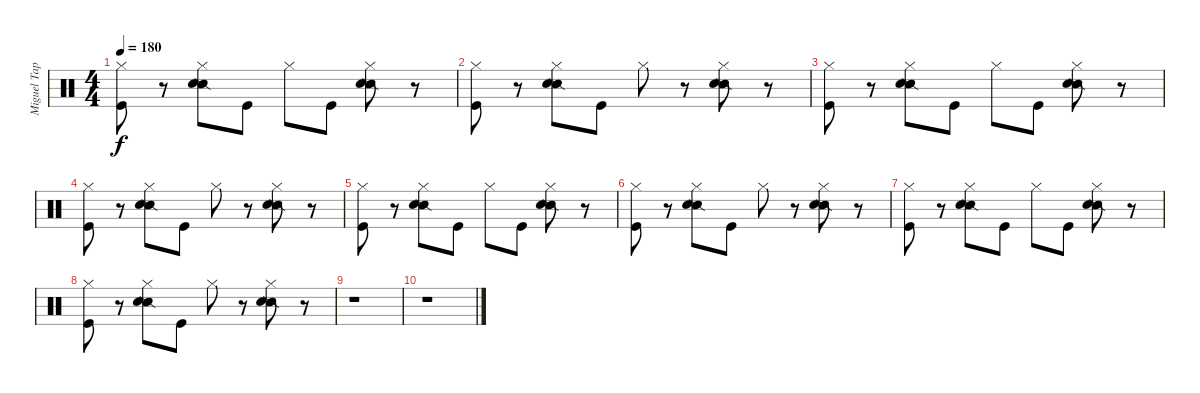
\track ("Miguel Tapia (Batería)" "Miguel Tap") {instrument percussion}
\staff {score}
\articulation defaults
\ts (4 4)
\tempo 180
\clef neutral
\ks c
("Hi-Hat (closed)" "Kick (hit)").8{dy f} r.8 ("Snare (side stick) 2" "Hi-Hat (closed)" "Snare (hit) 2").8 "Kick (hit)".8 "Hi-Hat (closed)".8 "Kick (hit)".8 ("Snare (side stick) 2" "Hi-Hat (closed)" "Snare (hit) 2").8 r.8 |
("Hi-Hat (closed)" "Kick (hit)").8{volume 9} r.8 ("Snare (side stick) 2" "Hi-Hat (closed)" "Snare (hit) 2").8 "Kick (hit)".8 "Hi-Hat (closed)".8 r.8 ("Snare (side stick) 2" "Hi-Hat (closed)" "Snare (hit) 2").8 r.8 |
("Hi-Hat (closed)" "Kick (hit)").8 r.8 ("Snare (side stick) 2" "Hi-Hat (closed)" "Snare (hit) 2").8 "Kick (hit)".8 "Hi-Hat (closed)".8 "Kick (hit)".8 ("Snare (side stick) 2" "Hi-Hat (closed)" "Snare (hit) 2").8 r.8 |
("Hi-Hat (closed)" "Kick (hit)").8 r.8 ("Snare (side stick) 2" "Hi-Hat (closed)" "Snare (hit) 2").8 "Kick (hit)".8 "Hi-Hat (closed)".8 r.8 ("Snare (side stick) 2" "Hi-Hat (closed)" "Snare (hit) 2").8 r.8 |
("Hi-Hat (closed)" "Kick (hit)").8{volume 0} r.8 ("Snare (side stick) 2" "Hi-Hat (closed)" "Snare (hit) 2").8 "Kick (hit)".8 "Hi-Hat (closed)".8 "Kick (hit)".8 ("Snare (side stick) 2" "Hi-Hat (closed)" "Snare (hit) 2").8 r.8 |
("Hi-Hat (closed)" "Kick (hit)").8 r.8 ("Snare (side stick) 2" "Hi-Hat (closed)" "Snare (hit) 2").8 "Kick (hit)".8 "Hi-Hat (closed)".8 r.8 ("Snare (side stick) 2" "Hi-Hat (closed)" "Snare (hit) 2").8 r.8 |
("Hi-Hat (closed)" "Kick (hit)").8{volume 1} r.8 ("Snare (side stick) 2" "Hi-Hat (closed)" "Snare (hit) 2").8 "Kick (hit)".8 "Hi-Hat (closed)".8 "Kick (hit)".8 ("Snare (side stick) 2" "Hi-Hat (closed)" "Snare (hit) 2").8 r.8 |
("Hi-Hat (closed)" "Kick (hit)").8 r.8 ("Snare (side stick) 2" "Hi-Hat (closed)" "Snare (hit) 2").8 "Kick (hit)".8 "Hi-Hat (closed)".8 r.8 ("Snare (side stick) 2" "Hi-Hat (closed)" "Snare (hit) 2").8 r.8 |
r.1 |
r.1
